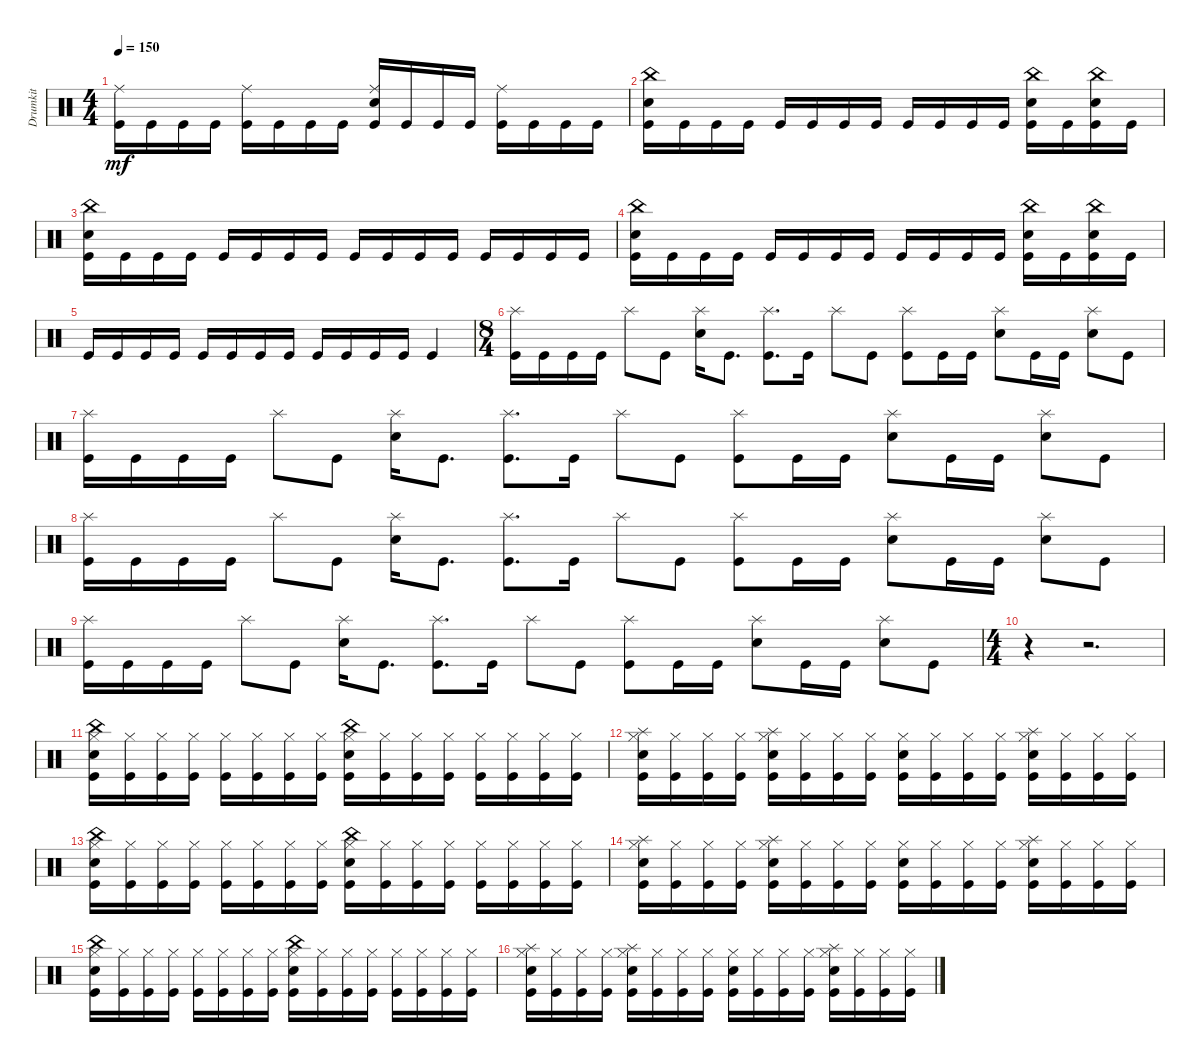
\track ("Drumkit" "Drumkit") {instrument percussion}
\staff {score}
\articulation defaults
\ts (4 4)
\tempo 150
\clef neutral
\ks c
("Kick (hit)" "Ride (middle)").16{dy mf} "Kick (hit)".16 "Kick (hit)".16 "Kick (hit)".16 ("Kick (hit)" "Ride (middle)").16 "Kick (hit)".16 "Kick (hit)".16 "Kick (hit)".16 ("Kick (hit)" "Ride (middle)" "Snare (hit) 2").16 "Kick (hit)".16 "Kick (hit)".16 "Kick (hit)".16 ("Kick (hit)" "Ride (middle)").16 "Kick (hit)".16 "Kick (hit)".16 "Kick (hit)".16 |
("Kick (hit)" "Snare (hit) 2" "China (hit)").16 "Kick (hit)".16 "Kick (hit)".16 "Kick (hit)".16 "Kick (hit)".16 "Kick (hit)".16 "Kick (hit)".16 "Kick (hit)".16 "Kick (hit)".16 "Kick (hit)".16 "Kick (hit)".16 "Kick (hit)".16 ("Kick (hit)" "China (hit)" "Snare (hit) 2").16 "Kick (hit)".16 ("Kick (hit)" "China (hit)" "Snare (hit) 2").16 "Kick (hit)".16 |
("Kick (hit)" "Snare (hit) 2" "China (hit)").16 "Kick (hit)".16 "Kick (hit)".16 "Kick (hit)".16 "Kick (hit)".16 "Kick (hit)".16 "Kick (hit)".16 "Kick (hit)".16 "Kick (hit)".16 "Kick (hit)".16 "Kick (hit)".16 "Kick (hit)".16 "Kick (hit)".16 "Kick (hit)".16 "Kick (hit)".16 "Kick (hit)".16 |
("Kick (hit)" "Snare (hit) 2" "China (hit)").16 "Kick (hit)".16 "Kick (hit)".16 "Kick (hit)".16 "Kick (hit)".16 "Kick (hit)".16 "Kick (hit)".16 "Kick (hit)".16 "Kick (hit)".16 "Kick (hit)".16 "Kick (hit)".16 "Kick (hit)".16 ("Kick (hit)" "China (hit)" "Snare (hit) 2").16 "Kick (hit)".16 ("Kick (hit)" "China (hit)" "Snare (hit) 2").16 "Kick (hit)".16 |
"Kick (hit)".16 "Kick (hit)".16 "Kick (hit)".16 "Kick (hit)".16 "Kick (hit)".16 "Kick (hit)".16 "Kick (hit)".16 "Kick (hit)".16 "Kick (hit)".16 "Kick (hit)".16 "Kick (hit)".16 "Kick (hit)".16 "Kick (hit)".4 |
\ts (8 4)
("Kick (hit)" "Splash (hit)").16 "Kick (hit)".16 "Kick (hit)".16 "Kick (hit)".16 "Splash (hit)".8 "Kick (hit)".8 ("Snare (hit) 2" "Splash (hit)").16 "Kick (hit)".8{d} ("Kick (hit)" "Splash (hit)").8{d} "Kick (hit)".16 "Splash (hit)".8 "Kick (hit)".8 ("Kick (hit)" "Splash (hit)").8 "Kick (hit)".16 "Kick (hit)".16 ("Snare (hit) 2" "Splash (hit)").8 "Kick (hit)".16 "Kick (hit)".16 ("Snare (hit) 2" "Splash (hit)").8 "Kick (hit)".8 |
("Kick (hit)" "Splash (hit)").16 "Kick (hit)".16 "Kick (hit)".16 "Kick (hit)".16 "Splash (hit)".8 "Kick (hit)".8 ("Snare (hit) 2" "Splash (hit)").16 "Kick (hit)".8{d} ("Kick (hit)" "Splash (hit)").8{d} "Kick (hit)".16 "Splash (hit)".8 "Kick (hit)".8 ("Kick (hit)" "Splash (hit)").8 "Kick (hit)".16 "Kick (hit)".16 ("Snare (hit) 2" "Splash (hit)").8 "Kick (hit)".16 "Kick (hit)".16 ("Snare (hit) 2" "Splash (hit)").8 "Kick (hit)".8 |
("Kick (hit)" "Splash (hit)").16 "Kick (hit)".16 "Kick (hit)".16 "Kick (hit)".16 "Splash (hit)".8 "Kick (hit)".8 ("Snare (hit) 2" "Splash (hit)").16 "Kick (hit)".8{d} ("Kick (hit)" "Splash (hit)").8{d} "Kick (hit)".16 "Splash (hit)".8 "Kick (hit)".8 ("Kick (hit)" "Splash (hit)").8 "Kick (hit)".16 "Kick (hit)".16 ("Snare (hit) 2" "Splash (hit)").8 "Kick (hit)".16 "Kick (hit)".16 ("Snare (hit) 2" "Splash (hit)").8 "Kick (hit)".8 |
("Kick (hit)" "Splash (hit)").16 "Kick (hit)".16 "Kick (hit)".16 "Kick (hit)".16 "Splash (hit)".8 "Kick (hit)".8 ("Snare (hit) 2" "Splash (hit)").16 "Kick (hit)".8{d} ("Kick (hit)" "Splash (hit)").8{d} "Kick (hit)".16 "Splash (hit)".8 "Kick (hit)".8 ("Kick (hit)" "Splash (hit)").8 "Kick (hit)".16 "Kick (hit)".16 ("Snare (hit) 2" "Splash (hit)").8 "Kick (hit)".16 "Kick (hit)".16 ("Snare (hit) 2" "Splash (hit)").8 "Kick (hit)".8 |
\ts (4 4)
r.4 r.2{d} |
("Kick (hit)" "China (hit)" "Snare (hit) 2" "Hi-Hat (closed)").16 ("Kick (hit)" "Hi-Hat (closed)").16 ("Kick (hit)" "Hi-Hat (closed)").16 ("Kick (hit)" "Hi-Hat (closed)").16 ("Kick (hit)" "Hi-Hat (closed)").16 ("Kick (hit)" "Hi-Hat (closed)").16 ("Kick (hit)" "Hi-Hat (closed)").16 ("Kick (hit)" "Hi-Hat (closed)").16 ("Kick (hit)" "Snare (hit) 2" "China (hit)" "Hi-Hat (closed)").16 ("Kick (hit)" "Hi-Hat (closed)").16 ("Kick (hit)" "Hi-Hat (closed)").16 ("Kick (hit)" "Hi-Hat (closed)").16 ("Kick (hit)" "Hi-Hat (closed)").16 ("Kick (hit)" "Hi-Hat (closed)").16 ("Kick (hit)" "Hi-Hat (closed)").16 ("Kick (hit)" "Hi-Hat (closed)").16 |
("Kick (hit)" "Splash (hit)" "Snare (hit) 2" "Hi-Hat (closed)").16 ("Kick (hit)" "Hi-Hat (closed)").16 ("Kick (hit)" "Hi-Hat (closed)").16 ("Kick (hit)" "Hi-Hat (closed)").16 ("Kick (hit)" "Splash (hit)" "Snare (hit) 2" "Hi-Hat (closed)").16 ("Kick (hit)" "Hi-Hat (closed)").16 ("Kick (hit)" "Hi-Hat (closed)").16 ("Kick (hit)" "Hi-Hat (closed)").16 ("Kick (hit)" "Snare (hit) 2" "Hi-Hat (closed)").16 ("Kick (hit)" "Hi-Hat (closed)").16 ("Kick (hit)" "Hi-Hat (closed)").16 ("Kick (hit)" "Hi-Hat (closed)").16 ("Kick (hit)" "Snare (hit) 2" "Splash (hit)" "Hi-Hat (closed)").16 ("Kick (hit)" "Hi-Hat (closed)").16 ("Kick (hit)" "Hi-Hat (closed)").16 ("Kick (hit)" "Hi-Hat (closed)").16 |
("Kick (hit)" "China (hit)" "Snare (hit) 2" "Hi-Hat (closed)").16 ("Kick (hit)" "Hi-Hat (closed)").16 ("Kick (hit)" "Hi-Hat (closed)").16 ("Kick (hit)" "Hi-Hat (closed)").16 ("Kick (hit)" "Hi-Hat (closed)").16 ("Kick (hit)" "Hi-Hat (closed)").16 ("Kick (hit)" "Hi-Hat (closed)").16 ("Kick (hit)" "Hi-Hat (closed)").16 ("Kick (hit)" "Snare (hit) 2" "China (hit)" "Hi-Hat (closed)").16 ("Kick (hit)" "Hi-Hat (closed)").16 ("Kick (hit)" "Hi-Hat (closed)").16 ("Kick (hit)" "Hi-Hat (closed)").16 ("Kick (hit)" "Hi-Hat (closed)").16 ("Kick (hit)" "Hi-Hat (closed)").16 ("Kick (hit)" "Hi-Hat (closed)").16 ("Kick (hit)" "Hi-Hat (closed)").16 |
("Kick (hit)" "Splash (hit)" "Snare (hit) 2" "Hi-Hat (closed)").16 ("Kick (hit)" "Hi-Hat (closed)").16 ("Kick (hit)" "Hi-Hat (closed)").16 ("Kick (hit)" "Hi-Hat (closed)").16 ("Kick (hit)" "Splash (hit)" "Snare (hit) 2" "Hi-Hat (closed)").16 ("Kick (hit)" "Hi-Hat (closed)").16 ("Kick (hit)" "Hi-Hat (closed)").16 ("Kick (hit)" "Hi-Hat (closed)").16 ("Kick (hit)" "Snare (hit) 2" "Hi-Hat (closed)").16 ("Kick (hit)" "Hi-Hat (closed)").16 ("Kick (hit)" "Hi-Hat (closed)").16 ("Kick (hit)" "Hi-Hat (closed)").16 ("Kick (hit)" "Snare (hit) 2" "Splash (hit)" "Hi-Hat (closed)").16 ("Kick (hit)" "Hi-Hat (closed)").16 ("Kick (hit)" "Hi-Hat (closed)").16 ("Kick (hit)" "Hi-Hat (closed)").16 |
("Kick (hit)" "China (hit)" "Snare (hit) 2" "Hi-Hat (closed)").16 ("Kick (hit)" "Hi-Hat (closed)").16 ("Kick (hit)" "Hi-Hat (closed)").16 ("Kick (hit)" "Hi-Hat (closed)").16 ("Kick (hit)" "Hi-Hat (closed)").16 ("Kick (hit)" "Hi-Hat (closed)").16 ("Kick (hit)" "Hi-Hat (closed)").16 ("Kick (hit)" "Hi-Hat (closed)").16 ("Kick (hit)" "Snare (hit) 2" "China (hit)" "Hi-Hat (closed)").16 ("Kick (hit)" "Hi-Hat (closed)").16 ("Kick (hit)" "Hi-Hat (closed)").16 ("Kick (hit)" "Hi-Hat (closed)").16 ("Kick (hit)" "Hi-Hat (closed)").16 ("Kick (hit)" "Hi-Hat (closed)").16 ("Kick (hit)" "Hi-Hat (closed)").16 ("Kick (hit)" "Hi-Hat (closed)").16 |
("Kick (hit)" "Splash (hit)" "Snare (hit) 2" "Hi-Hat (closed)").16 ("Kick (hit)" "Hi-Hat (closed)").16 ("Kick (hit)" "Hi-Hat (closed)").16 ("Kick (hit)" "Hi-Hat (closed)").16 ("Kick (hit)" "Splash (hit)" "Snare (hit) 2" "Hi-Hat (closed)").16 ("Kick (hit)" "Hi-Hat (closed)").16 ("Kick (hit)" "Hi-Hat (closed)").16 ("Kick (hit)" "Hi-Hat (closed)").16 ("Kick (hit)" "Snare (hit) 2" "Hi-Hat (closed)").16 ("Kick (hit)" "Hi-Hat (closed)").16 ("Kick (hit)" "Hi-Hat (closed)").16 ("Kick (hit)" "Hi-Hat (closed)").16 ("Kick (hit)" "Snare (hit) 2" "Splash (hit)" "Hi-Hat (closed)").16 ("Kick (hit)" "Hi-Hat (closed)").16 ("Kick (hit)" "Hi-Hat (closed)").16 ("Kick (hit)" "Hi-Hat (closed)").16
